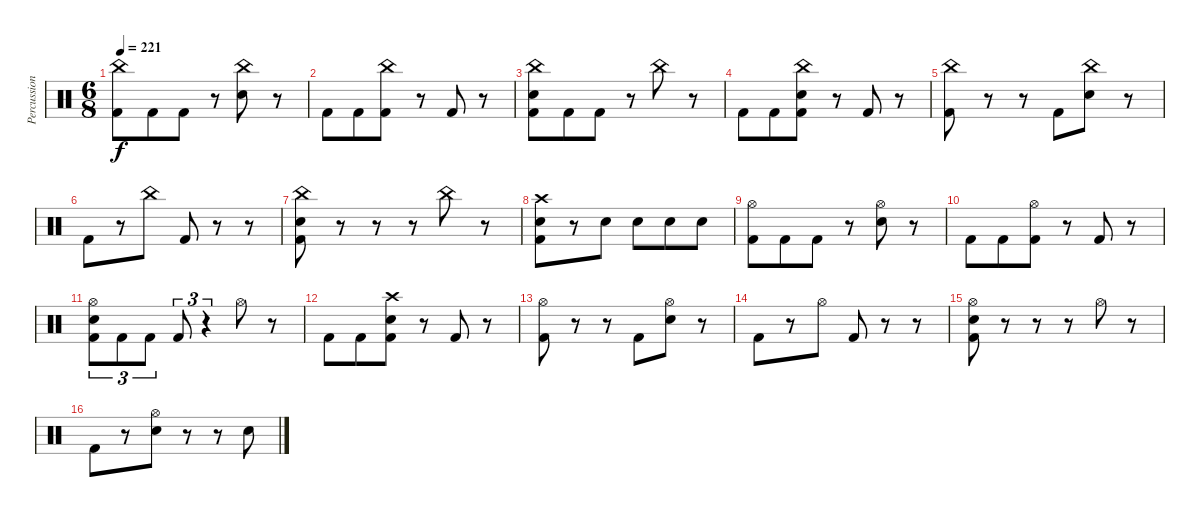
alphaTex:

\track ("Percussion" "Percussion") {instrument percussion}
\staff {score}
\articulation defaults
\ts (6 8)
\tempo 221
\clef neutral
\ks c
("China (hit)" "Kick (hit) 2").8{dy f} "Kick (hit) 2".8 "Kick (hit) 2".8 r.8 ("China (hit)" "Snare (hit) 2").8 r.8 |
"Kick (hit) 2".8 "Kick (hit) 2".8 ("China (hit)" "Kick (hit) 2").8 r.8 "Kick (hit) 2".8 r.8 |
("China (hit)" "Snare (hit) 2" "Kick (hit) 2").8 "Kick (hit) 2".8 "Kick (hit) 2".8 r.8 "China (hit)".8 r.8 |
"Kick (hit) 2".8 "Kick (hit) 2".8 ("China (hit)" "Snare (hit) 2" "Kick (hit) 2").8 r.8 "Kick (hit) 2".8 r.8 |
("China (hit)" "Kick (hit) 2").8 r.8 r.8 "Kick (hit) 2".8 ("China (hit)" "Snare (hit) 2").8 r.8 |
"Kick (hit) 2".8 r.8 "China (hit)".8 "Kick (hit) 2".8 r.8 r.8 |
("China (hit)" "Snare (hit) 2" "Kick (hit) 2").8 r.8 r.8 r.8 "China (hit)".8 r.8 |
("Crash high (hit)" "Snare (hit) 2" "Kick (hit) 2").8 r.8 "Snare (hit) 2".8 "Snare (hit) 2".8 "Snare (hit) 2".8 "Snare (hit) 2".8 |
("Hi-Hat (open)" "Kick (hit) 2").8 "Kick (hit) 2".8 "Kick (hit) 2".8 r.8 ("Hi-Hat (open)" "Snare (hit) 2").8 r.8 |
"Kick (hit) 2".8 "Kick (hit) 2".8 ("Hi-Hat (open)" "Kick (hit) 2").8 r.8 "Kick (hit) 2".8 r.8 |
("Hi-Hat (open)" "Snare (hit) 2" "Kick (hit) 2").8{tu (3 2)} "Kick (hit) 2".8{tu (3 2)} "Kick (hit) 2".8{tu (3 2)} "Kick (hit) 2".8{tu (3 2)} r.4{tu (3 2)} "Hi-Hat (open)".8 r.8 |
"Kick (hit) 2".8 "Kick (hit) 2".8 ("Crash high (hit)" "Snare (hit) 2" "Kick (hit) 2").8 r.8 "Kick (hit) 2".8 r.8 |
("Hi-Hat (open)" "Kick (hit) 2").8 r.8 r.8 "Kick (hit) 2".8 ("Hi-Hat (open)" "Snare (hit) 2").8 r.8 |
"Kick (hit) 2".8 r.8 "Hi-Hat (open)".8 "Kick (hit) 2".8 r.8 r.8 |
("Hi-Hat (open)" "Snare (hit) 2" "Kick (hit) 2").8 r.8 r.8 r.8 "Hi-Hat (open)".8 r.8 |
"Kick (hit) 2".8 r.8 ("Hi-Hat (open)" "Snare (hit) 2").8 r.8 r.8 "Snare (hit) 2".8
